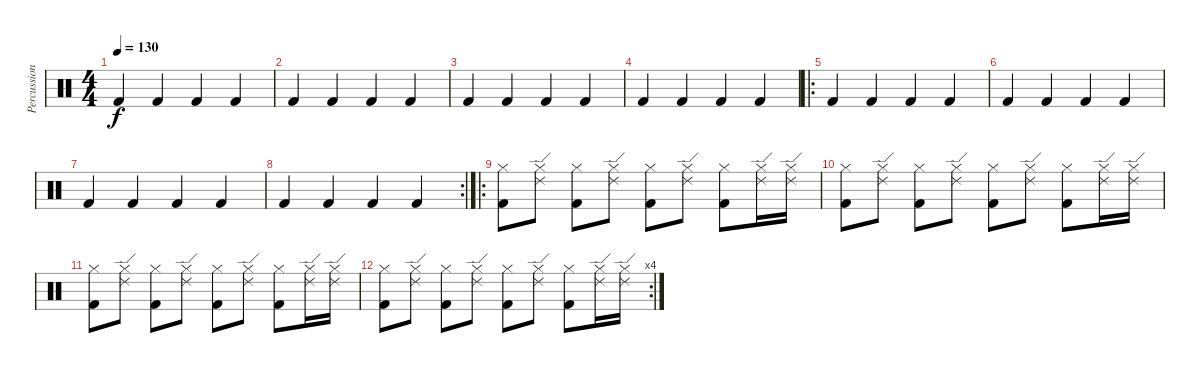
\track ("Percussions" "Percussion") {instrument percussion}
\staff {score}
\articulation defaults
\ts (4 4)
\tempo 130
\clef neutral
\ks c "Kick (hit) 2".4{dy f} "Kick (hit) 2".4 "Kick (hit) 2".4 "Kick (hit) 2".4
|
"Kick (hit) 2".4 "Kick (hit) 2".4 "Kick (hit) 2".4 "Kick (hit) 2".4 |
"Kick (hit) 2".4 "Kick (hit) 2".4 "Kick (hit) 2".4 "Kick (hit) 2".4 |
"Kick (hit) 2".4 "Kick (hit) 2".4 "Kick (hit) 2".4 "Kick (hit) 2".4 |
\ro "Kick (hit) 2".4 "Kick (hit) 2".4 "Kick (hit) 2".4 "Kick (hit) 2".4
|
"Kick (hit) 2".4 "Kick (hit) 2".4 "Kick (hit) 2".4 "Kick (hit) 2".4 |
"Kick (hit) 2".4 "Kick (hit) 2".4 "Kick (hit) 2".4 "Kick (hit) 2".4 |
\rc 2 "Kick (hit) 2".4 "Kick (hit) 2".4 "Kick (hit) 2".4 "Kick (hit) 2".4
|
\ro
("Kick (hit) 2" "Hi-Hat (closed)").8 ("Hi-Hat (closed)" "Ride (edge) 2").8 ("Kick (hit) 2" "Hi-Hat (closed)").8 ("Hi-Hat (closed)" "Ride (edge) 2").8 ("Kick (hit) 2" "Hi-Hat (closed)").8 ("Hi-Hat (closed)" "Ride (edge) 2").8 ("Kick (hit) 2" "Hi-Hat (closed)").8 ("Hi-Hat (closed)" "Ride (edge) 2").16 ("Hi-Hat (closed)" "Ride (edge) 2").16 |
("Kick (hit) 2" "Hi-Hat (closed)").8 ("Hi-Hat (closed)" "Ride (edge) 2").8 ("Kick (hit) 2" "Hi-Hat (closed)").8 ("Hi-Hat (closed)" "Ride (edge) 2").8 ("Kick (hit) 2" "Hi-Hat (closed)").8 ("Hi-Hat (closed)" "Ride (edge) 2").8 ("Kick (hit) 2" "Hi-Hat (closed)").8 ("Hi-Hat (closed)" "Ride (edge) 2").16 ("Hi-Hat (closed)" "Ride (edge) 2").16 |
("Kick (hit) 2" "Hi-Hat (closed)").8 ("Hi-Hat (closed)" "Ride (edge) 2").8 ("Kick (hit) 2" "Hi-Hat (closed)").8 ("Hi-Hat (closed)" "Ride (edge) 2").8 ("Kick (hit) 2" "Hi-Hat (closed)").8 ("Hi-Hat (closed)" "Ride (edge) 2").8 ("Kick (hit) 2" "Hi-Hat (closed)").8 ("Hi-Hat (closed)" "Ride (edge) 2").16 ("Hi-Hat (closed)" "Ride (edge) 2").16 |
\rc 4
("Kick (hit) 2" "Hi-Hat (closed)").8 ("Hi-Hat (closed)" "Ride (edge) 2").8 ("Kick (hit) 2" "Hi-Hat (closed)").8 ("Hi-Hat (closed)" "Ride (edge) 2").8 ("Kick (hit) 2" "Hi-Hat (closed)").8 ("Hi-Hat (closed)" "Ride (edge) 2").8 ("Kick (hit) 2" "Hi-Hat (closed)").8 ("Hi-Hat (closed)" "Ride (edge) 2").16 ("Hi-Hat (closed)" "Ride (edge) 2").16
